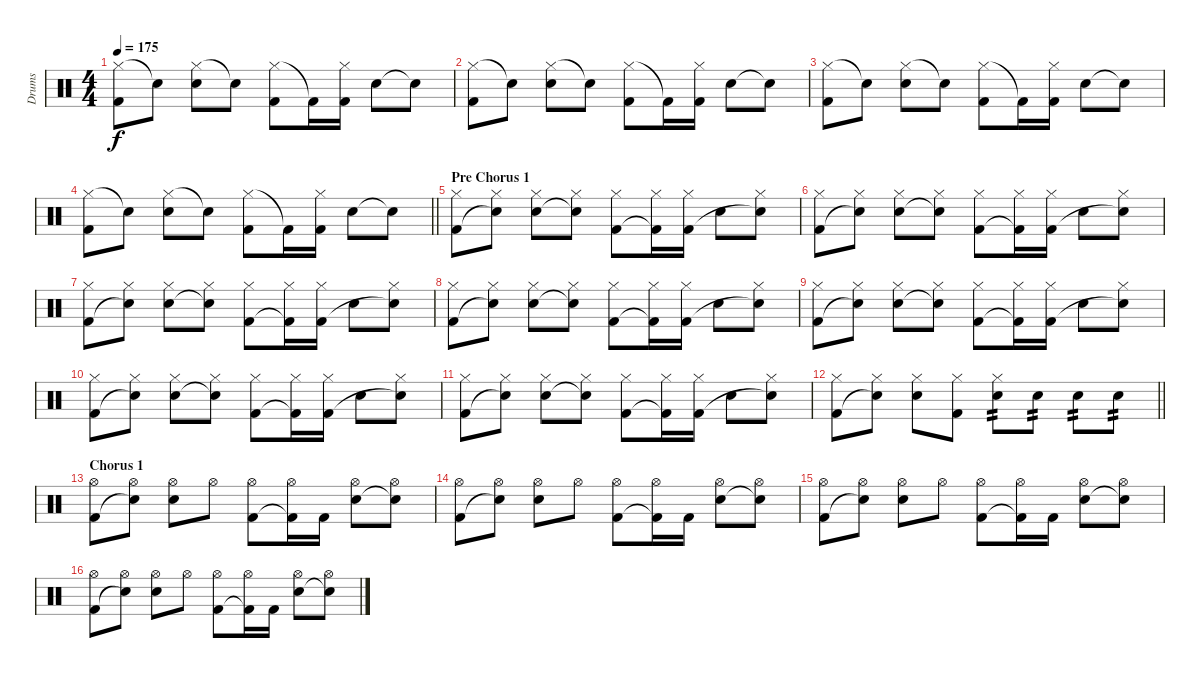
\track ("Drums" "Drums") {instrument percussion}
\staff {score}
\articulation defaults
\ts (4 4)
\tempo 175
\clef neutral
\ks c
("Hi-Hat (closed)" "Kick (hit) 2").8{dy f} "Snare (hit)"{t}.8 ("Hi-Hat (closed)" "Electric Snare (hit)").8 "Snare (hit)"{t}.8 ("Hi-Hat (closed)" "Kick (hit) 2").8 "Kick (hit) 2"{t}.16 ("Hi-Hat (closed)" "Kick (hit) 2").16 "Electric Snare (hit)".8 "Snare (hit)"{t}.8 |
("Hi-Hat (closed)" "Kick (hit) 2").8 "Snare (hit)"{t}.8 ("Hi-Hat (closed)" "Electric Snare (hit)").8 "Snare (hit)"{t}.8 ("Hi-Hat (closed)" "Kick (hit) 2").8 "Kick (hit) 2"{t}.16 ("Hi-Hat (closed)" "Kick (hit) 2").16 "Electric Snare (hit)".8 "Snare (hit)"{t}.8 |
("Hi-Hat (closed)" "Kick (hit) 2").8 "Snare (hit)"{t}.8 ("Hi-Hat (closed)" "Electric Snare (hit)").8 "Snare (hit)"{t}.8 ("Hi-Hat (closed)" "Kick (hit) 2").8 "Kick (hit) 2"{t}.16 ("Hi-Hat (closed)" "Kick (hit) 2").16 "Electric Snare (hit)".8 "Snare (hit)"{t}.8 |
\barLineRight lightlight
("Hi-Hat (closed)" "Kick (hit) 2").8 "Snare (hit)"{t}.8 ("Hi-Hat (closed)" "Electric Snare (hit)").8 "Snare (hit)"{t}.8 ("Hi-Hat (closed)" "Kick (hit) 2").8 "Kick (hit) 2"{t}.16 ("Hi-Hat (closed)" "Kick (hit) 2").16 "Electric Snare (hit)".8 "Snare (hit)"{t}.8 |
\section ("" "Pre Chorus 1")
("Hi-Hat (closed)" "Kick (hit) 2").8 ("Hi-Hat (closed)" "Snare (hit)"{t}).8 ("Hi-Hat (closed)" "Electric Snare (hit)").8 ("Hi-Hat (closed)" "Snare (hit)"{t}).8 ("Hi-Hat (closed)" "Kick (hit) 2").8 ("Hi-Hat (closed)" "Kick (hit) 2"{t}).16 ("Hi-Hat (closed)" "Kick (hit) 2").16 "Electric Snare (hit)".8 ("Hi-Hat (closed)" "Snare (hit)"{t}).8 |
("Hi-Hat (closed)" "Kick (hit) 2").8 ("Hi-Hat (closed)" "Snare (hit)"{t}).8 ("Hi-Hat (closed)" "Electric Snare (hit)").8 ("Hi-Hat (closed)" "Snare (hit)"{t}).8 ("Hi-Hat (closed)" "Kick (hit) 2").8 ("Hi-Hat (closed)" "Kick (hit) 2"{t}).16 ("Hi-Hat (closed)" "Kick (hit) 2").16 "Electric Snare (hit)".8 ("Hi-Hat (closed)" "Snare (hit)"{t}).8 |
("Hi-Hat (closed)" "Kick (hit) 2").8 ("Hi-Hat (closed)" "Snare (hit)"{t}).8 ("Hi-Hat (closed)" "Electric Snare (hit)").8 ("Hi-Hat (closed)" "Snare (hit)"{t}).8 ("Hi-Hat (closed)" "Kick (hit) 2").8 ("Hi-Hat (closed)" "Kick (hit) 2"{t}).16 ("Hi-Hat (closed)" "Kick (hit) 2").16 "Electric Snare (hit)".8 ("Hi-Hat (closed)" "Snare (hit)"{t}).8 |
("Hi-Hat (closed)" "Kick (hit) 2").8 ("Hi-Hat (closed)" "Snare (hit)"{t}).8 ("Hi-Hat (closed)" "Electric Snare (hit)").8 ("Hi-Hat (closed)" "Snare (hit)"{t}).8 ("Hi-Hat (closed)" "Kick (hit) 2").8 ("Hi-Hat (closed)" "Kick (hit) 2"{t}).16 ("Hi-Hat (closed)" "Kick (hit) 2").16 "Electric Snare (hit)".8 ("Hi-Hat (closed)" "Snare (hit)"{t}).8 |
("Hi-Hat (closed)" "Kick (hit) 2").8 ("Hi-Hat (closed)" "Snare (hit)"{t}).8 ("Hi-Hat (closed)" "Electric Snare (hit)").8 ("Hi-Hat (closed)" "Snare (hit)"{t}).8 ("Hi-Hat (closed)" "Kick (hit) 2").8 ("Hi-Hat (closed)" "Kick (hit) 2"{t}).16 ("Hi-Hat (closed)" "Kick (hit) 2").16 "Electric Snare (hit)".8 ("Hi-Hat (closed)" "Snare (hit)"{t}).8 |
("Hi-Hat (closed)" "Kick (hit) 2").8 ("Hi-Hat (closed)" "Snare (hit)"{t}).8 ("Hi-Hat (closed)" "Electric Snare (hit)").8 ("Hi-Hat (closed)" "Snare (hit)"{t}).8 ("Hi-Hat (closed)" "Kick (hit) 2").8 ("Hi-Hat (closed)" "Kick (hit) 2"{t}).16 ("Hi-Hat (closed)" "Kick (hit) 2").16 "Electric Snare (hit)".8 ("Hi-Hat (closed)" "Snare (hit)"{t}).8 |
("Hi-Hat (closed)" "Kick (hit) 2").8 ("Hi-Hat (closed)" "Snare (hit)"{t}).8 ("Hi-Hat (closed)" "Electric Snare (hit)").8 ("Hi-Hat (closed)" "Snare (hit)"{t}).8 ("Hi-Hat (closed)" "Kick (hit) 2").8 ("Hi-Hat (closed)" "Kick (hit) 2"{t}).16 ("Hi-Hat (closed)" "Kick (hit) 2").16 "Electric Snare (hit)".8 ("Hi-Hat (closed)" "Snare (hit)"{t}).8 |
\barLineRight lightlight
("Hi-Hat (closed)" "Kick (hit) 2").8 ("Hi-Hat (closed)" "Snare (hit)"{t}).8 ("Hi-Hat (closed)" "Electric Snare (hit)").8 ("Hi-Hat (closed)" "Kick (hit) 2").8 ("Hi-Hat (closed)" "Electric Snare (hit)").8{tp 2} "Electric Snare (hit)".8{tp 2} "Electric Snare (hit)".8{tp 2} "Electric Snare (hit)".8{tp 2} |
\section ("" "Chorus 1")
("Hi-Hat (open)" "Kick (hit) 2").8 ("Hi-Hat (open)" "Snare (hit)"{t}).8 ("Hi-Hat (open)" "Electric Snare (hit)").8 "Hi-Hat (open)".8 ("Hi-Hat (open)" "Kick (hit) 2").8 ("Hi-Hat (open)" "Kick (hit) 2"{t}).16 "Kick (hit) 2".16 ("Hi-Hat (open)" "Electric Snare (hit)").8 ("Hi-Hat (open)" "Snare (hit)"{t}).8 |
("Hi-Hat (open)" "Kick (hit) 2").8 ("Hi-Hat (open)" "Snare (hit)"{t}).8 ("Hi-Hat (open)" "Electric Snare (hit)").8 "Hi-Hat (open)".8 ("Hi-Hat (open)" "Kick (hit) 2").8 ("Hi-Hat (open)" "Kick (hit) 2"{t}).16 "Kick (hit) 2".16 ("Hi-Hat (open)" "Electric Snare (hit)").8 ("Hi-Hat (open)" "Snare (hit)"{t}).8 |
("Hi-Hat (open)" "Kick (hit) 2").8 ("Hi-Hat (open)" "Snare (hit)"{t}).8 ("Hi-Hat (open)" "Electric Snare (hit)").8 "Hi-Hat (open)".8 ("Hi-Hat (open)" "Kick (hit) 2").8 ("Hi-Hat (open)" "Kick (hit) 2"{t}).16 "Kick (hit) 2".16 ("Hi-Hat (open)" "Electric Snare (hit)").8 ("Hi-Hat (open)" "Snare (hit)"{t}).8 |
("Hi-Hat (open)" "Kick (hit) 2").8 ("Hi-Hat (open)" "Snare (hit)"{t}).8 ("Hi-Hat (open)" "Electric Snare (hit)").8 "Hi-Hat (open)".8 ("Hi-Hat (open)" "Kick (hit) 2").8 ("Hi-Hat (open)" "Kick (hit) 2"{t}).16 "Kick (hit) 2".16 ("Hi-Hat (open)" "Electric Snare (hit)").8 ("Hi-Hat (open)" "Snare (hit)"{t}).8
